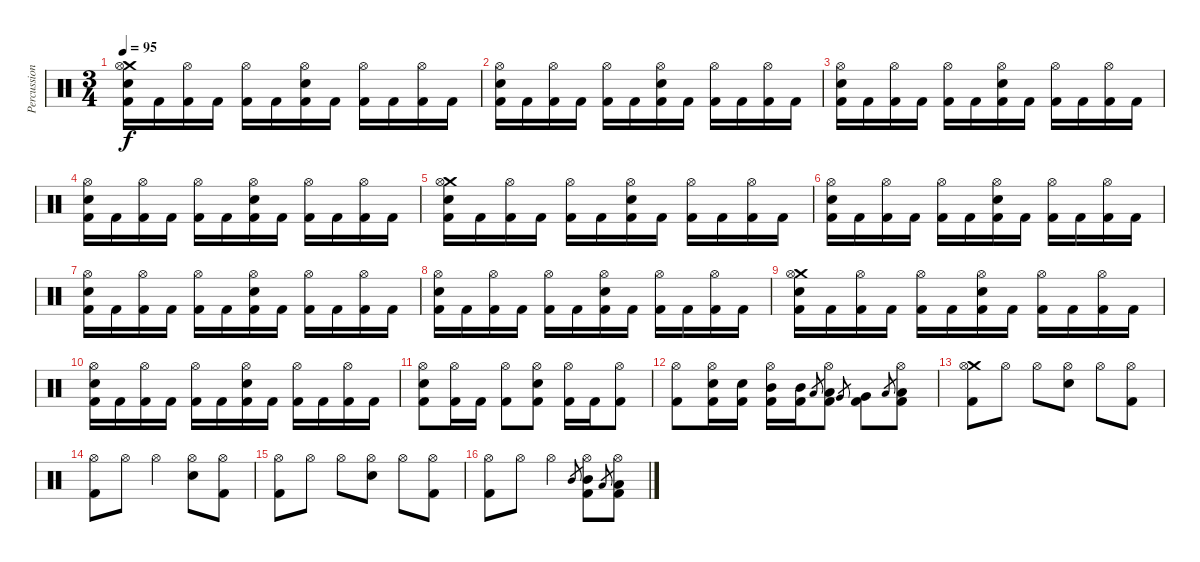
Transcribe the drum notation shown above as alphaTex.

\track ("Percussion" "Percussion") {instrument percussion}
\staff {score}
\articulation defaults
\ts (3 4)
\tempo 95
\clef neutral
\ks c
("Crash medium (hit)" "Hi-Hat (open)" "Electric Snare (hit)" "Kick (hit) 2").16{dy f} "Kick (hit) 2".16 ("Hi-Hat (open)" "Kick (hit) 2").16 "Kick (hit) 2".16 ("Hi-Hat (open)" "Kick (hit) 2").16 "Kick (hit) 2".16 ("Hi-Hat (open)" "Electric Snare (hit)" "Kick (hit) 2").16 "Kick (hit) 2".16 ("Hi-Hat (open)" "Kick (hit) 2").16 "Kick (hit) 2".16 ("Hi-Hat (open)" "Kick (hit) 2").16 "Kick (hit) 2".16 |
("Hi-Hat (open)" "Electric Snare (hit)" "Kick (hit) 2").16 "Kick (hit) 2".16 ("Hi-Hat (open)" "Kick (hit) 2").16 "Kick (hit) 2".16 ("Hi-Hat (open)" "Kick (hit) 2").16 "Kick (hit) 2".16 ("Hi-Hat (open)" "Electric Snare (hit)" "Kick (hit) 2").16 "Kick (hit) 2".16 ("Hi-Hat (open)" "Kick (hit) 2").16 "Kick (hit) 2".16 ("Hi-Hat (open)" "Kick (hit) 2").16 "Kick (hit) 2".16 |
("Hi-Hat (open)" "Electric Snare (hit)" "Kick (hit) 2").16 "Kick (hit) 2".16 ("Hi-Hat (open)" "Kick (hit) 2").16 "Kick (hit) 2".16 ("Hi-Hat (open)" "Kick (hit) 2").16 "Kick (hit) 2".16 ("Hi-Hat (open)" "Electric Snare (hit)" "Kick (hit) 2").16 "Kick (hit) 2".16 ("Hi-Hat (open)" "Kick (hit) 2").16 "Kick (hit) 2".16 ("Hi-Hat (open)" "Kick (hit) 2").16 "Kick (hit) 2".16 |
("Hi-Hat (open)" "Electric Snare (hit)" "Kick (hit) 2").16 "Kick (hit) 2".16 ("Hi-Hat (open)" "Kick (hit) 2").16 "Kick (hit) 2".16 ("Hi-Hat (open)" "Kick (hit) 2").16 "Kick (hit) 2".16 ("Hi-Hat (open)" "Electric Snare (hit)" "Kick (hit) 2").16 "Kick (hit) 2".16 ("Hi-Hat (open)" "Kick (hit) 2").16 "Kick (hit) 2".16 ("Hi-Hat (open)" "Kick (hit) 2").16 "Kick (hit) 2".16 |
("Crash medium (hit)" "Hi-Hat (open)" "Electric Snare (hit)" "Kick (hit) 2").16 "Kick (hit) 2".16 ("Hi-Hat (open)" "Kick (hit) 2").16 "Kick (hit) 2".16 ("Hi-Hat (open)" "Kick (hit) 2").16 "Kick (hit) 2".16 ("Hi-Hat (open)" "Electric Snare (hit)" "Kick (hit) 2").16 "Kick (hit) 2".16 ("Hi-Hat (open)" "Kick (hit) 2").16 "Kick (hit) 2".16 ("Hi-Hat (open)" "Kick (hit) 2").16 "Kick (hit) 2".16 |
("Hi-Hat (open)" "Electric Snare (hit)" "Kick (hit) 2").16 "Kick (hit) 2".16 ("Hi-Hat (open)" "Kick (hit) 2").16 "Kick (hit) 2".16 ("Hi-Hat (open)" "Kick (hit) 2").16 "Kick (hit) 2".16 ("Hi-Hat (open)" "Electric Snare (hit)" "Kick (hit) 2").16 "Kick (hit) 2".16 ("Hi-Hat (open)" "Kick (hit) 2").16 "Kick (hit) 2".16 ("Hi-Hat (open)" "Kick (hit) 2").16 "Kick (hit) 2".16 |
("Hi-Hat (open)" "Electric Snare (hit)" "Kick (hit) 2").16 "Kick (hit) 2".16 ("Hi-Hat (open)" "Kick (hit) 2").16 "Kick (hit) 2".16 ("Hi-Hat (open)" "Kick (hit) 2").16 "Kick (hit) 2".16 ("Hi-Hat (open)" "Electric Snare (hit)" "Kick (hit) 2").16 "Kick (hit) 2".16 ("Hi-Hat (open)" "Kick (hit) 2").16 "Kick (hit) 2".16 ("Hi-Hat (open)" "Kick (hit) 2").16 "Kick (hit) 2".16 |
("Hi-Hat (open)" "Electric Snare (hit)" "Kick (hit) 2").16 "Kick (hit) 2".16 ("Hi-Hat (open)" "Kick (hit) 2").16 "Kick (hit) 2".16 ("Hi-Hat (open)" "Kick (hit) 2").16 "Kick (hit) 2".16 ("Hi-Hat (open)" "Electric Snare (hit)" "Kick (hit) 2").16 "Kick (hit) 2".16 ("Hi-Hat (open)" "Kick (hit) 2").16 "Kick (hit) 2".16 ("Hi-Hat (open)" "Kick (hit) 2").16 "Kick (hit) 2".16 |
("Crash medium (hit)" "Hi-Hat (open)" "Electric Snare (hit)" "Kick (hit) 2").16 "Kick (hit) 2".16 ("Hi-Hat (open)" "Kick (hit) 2").16 "Kick (hit) 2".16 ("Hi-Hat (open)" "Kick (hit) 2").16 "Kick (hit) 2".16 ("Hi-Hat (open)" "Electric Snare (hit)" "Kick (hit) 2").16 "Kick (hit) 2".16 ("Hi-Hat (open)" "Kick (hit) 2").16 "Kick (hit) 2".16 ("Hi-Hat (open)" "Kick (hit) 2").16 "Kick (hit) 2".16 |
("Hi-Hat (open)" "Electric Snare (hit)" "Kick (hit) 2").16 "Kick (hit) 2".16 ("Hi-Hat (open)" "Kick (hit) 2").16 "Kick (hit) 2".16 ("Hi-Hat (open)" "Kick (hit) 2").16 "Kick (hit) 2".16 ("Hi-Hat (open)" "Electric Snare (hit)" "Kick (hit) 2").16 "Kick (hit) 2".16 ("Hi-Hat (open)" "Kick (hit) 2").16 "Kick (hit) 2".16 ("Hi-Hat (open)" "Kick (hit) 2").16 "Kick (hit) 2".16 |
("Hi-Hat (open)" "Electric Snare (hit)" "Kick (hit) 2").8 ("Hi-Hat (open)" "Kick (hit) 2").16 "Kick (hit) 2".16 ("Hi-Hat (open)" "Kick (hit) 2").8 ("Hi-Hat (open)" "Electric Snare (hit)" "Kick (hit) 2").8 ("Hi-Hat (open)" "Kick (hit) 2").16 "Kick (hit) 2".16 ("Hi-Hat (open)" "Kick (hit) 2").8 |
("Hi-Hat (open)" "Kick (hit) 2").8 ("Hi-Hat (open)" "Electric Snare (hit)" "Kick (hit) 2").16 ("Electric Snare (hit)" "Kick (hit) 2").16 ("Hi-Hat (open)" "Mid Tom (hit)" "Kick (hit) 2").16 ("Mid Tom (hit)" "Kick (hit) 2").16 "Low Tom (hit)".8{gr} ("Hi-Hat (open)" "Low Tom (hit)" "Kick (hit) 2").8 "Very Low Tom (hit)".8{gr} ("Very Low Tom (hit)" "Kick (hit) 2").8 "Low Floor Tom (hit)".8{gr} ("Hi-Hat (open)" "Low Floor Tom (hit)" "Kick (hit) 2").8 |
("Crash medium (hit)" "Hi-Hat (open)" "Kick (hit) 2").8 "Hi-Hat (open)".8 "Hi-Hat (open)".8 ("Hi-Hat (open)" "Electric Snare (hit)").8 "Hi-Hat (open)".8 ("Hi-Hat (open)" "Kick (hit) 2").8 |
("Hi-Hat (open)" "Kick (hit) 2").8 "Hi-Hat (open)".8 "Hi-Hat (open)".4 ("Hi-Hat (open)" "Electric Snare (hit)").8 ("Hi-Hat (open)" "Kick (hit) 2").8 |
("Hi-Hat (open)" "Kick (hit) 2").8 "Hi-Hat (open)".8 "Hi-Hat (open)".8 ("Hi-Hat (open)" "Electric Snare (hit)").8 "Hi-Hat (open)".8 ("Hi-Hat (open)" "Kick (hit) 2").8 |
("Hi-Hat (open)" "Kick (hit) 2").8 "Hi-Hat (open)".8 "Hi-Hat (open)".4 "Mid Tom (hit)".8{gr} ("Hi-Hat (open)" "Mid Tom (hit)" "Kick (hit) 2").8 "Low Tom (hit)".8{gr} ("Hi-Hat (open)" "Low Tom (hit)" "Kick (hit) 2").8
